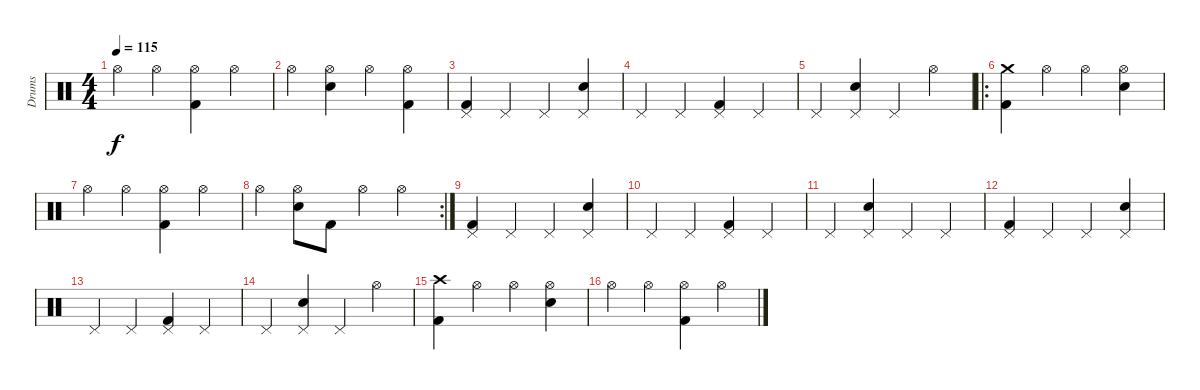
\track ("Drums" "Drums") {instrument percussion}
\staff {score}
\articulation defaults
\ts (4 4)
\tempo 115
\clef neutral
\ks c "Hi-Hat (open)".4{dy f} "Hi-Hat (open)".4
("Hi-Hat (open)" "Kick (hit) 2").4 "Hi-Hat (open)".4 |
"Hi-Hat (open)".4 ("Hi-Hat (open)" "Electric Snare (hit)").4 "Hi-Hat (open)".4 ("Hi-Hat (open)" "Kick (hit) 2").4 |
("Pedal Hi-Hat (hit)" "Kick (hit) 2").4 "Pedal Hi-Hat (hit)".4 "Pedal Hi-Hat (hit)".4 ("Pedal Hi-Hat (hit)" "Electric Snare (hit)").4 |
"Pedal Hi-Hat (hit)".4 "Pedal Hi-Hat (hit)".4 ("Pedal Hi-Hat (hit)" "Kick (hit) 2").4 "Pedal Hi-Hat (hit)".4 |
"Pedal Hi-Hat (hit)".4 ("Pedal Hi-Hat (hit)" "Electric Snare (hit)").4 "Pedal Hi-Hat (hit)".4 "Hi-Hat (open)".4 |
\ro
("Crash medium (hit)" "Kick (hit) 2").4 "Hi-Hat (open)".4 "Hi-Hat (open)".4 ("Hi-Hat (open)" "Electric Snare (hit)").4 |
"Hi-Hat (open)".4 "Hi-Hat (open)".4 ("Hi-Hat (open)" "Kick (hit) 2").4 "Hi-Hat (open)".4 |
\rc 2 "Hi-Hat (open)".4
("Hi-Hat (open)" "Electric Snare (hit)").8 "Kick (hit) 2".8 "Hi-Hat (open)".4 "Hi-Hat (open)".4 |
("Pedal Hi-Hat (hit)" "Kick (hit) 2").4 "Pedal Hi-Hat (hit)".4 "Pedal Hi-Hat (hit)".4 ("Pedal Hi-Hat (hit)" "Electric Snare (hit)").4 |
"Pedal Hi-Hat (hit)".4 "Pedal Hi-Hat (hit)".4 ("Pedal Hi-Hat (hit)" "Kick (hit) 2").4 "Pedal Hi-Hat (hit)".4 |
"Pedal Hi-Hat (hit)".4 ("Pedal Hi-Hat (hit)" "Electric Snare (hit)").4 "Pedal Hi-Hat (hit)".4 "Pedal Hi-Hat (hit)".4 |
("Pedal Hi-Hat (hit)" "Kick (hit) 2").4 "Pedal Hi-Hat (hit)".4 "Pedal Hi-Hat (hit)".4 ("Pedal Hi-Hat (hit)" "Electric Snare (hit)").4 |
"Pedal Hi-Hat (hit)".4 "Pedal Hi-Hat (hit)".4 ("Pedal Hi-Hat (hit)" "Kick (hit) 2").4 "Pedal Hi-Hat (hit)".4 |
"Pedal Hi-Hat (hit)".4 ("Pedal Hi-Hat (hit)" "Electric Snare (hit)").4 "Pedal Hi-Hat (hit)".4 "Hi-Hat (open)".4 |
("Crash high (hit)" "Kick (hit) 2").4 "Hi-Hat (open)".4 "Hi-Hat (open)".4 ("Hi-Hat (open)" "Electric Snare (hit)").4 |
"Hi-Hat (open)".4 "Hi-Hat (open)".4 ("Hi-Hat (open)" "Kick (hit) 2").4 "Hi-Hat (open)".4
